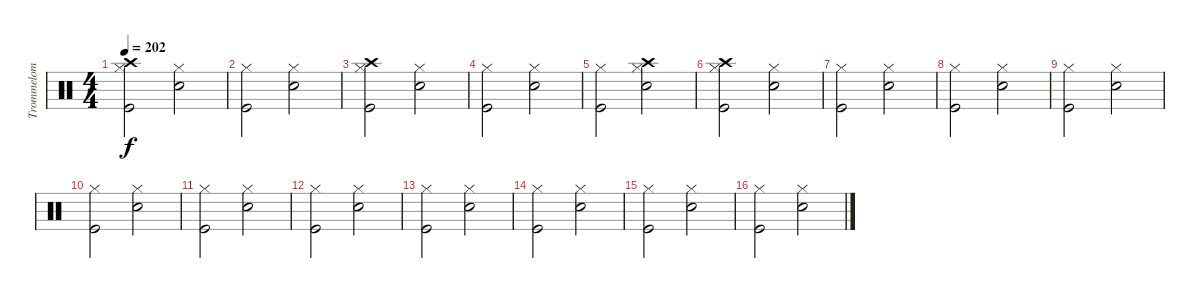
\track ("Trommelom" "Trommelom") {instrument percussion}
\staff {score}
\articulation defaults
\ts (4 4)
\tempo 202
\clef neutral
\ks c
("Crash high (hit)" "Kick (hit)" "Hi-Hat (closed)").2{dy f} ("Electric Snare (hit)" "Hi-Hat (closed)").2 |
("Kick (hit)" "Hi-Hat (closed)").2 ("Electric Snare (hit)" "Hi-Hat (closed)").2 |
("Crash high (hit)" "Kick (hit)" "Hi-Hat (closed)").2 ("Electric Snare (hit)" "Hi-Hat (closed)").2 |
("Kick (hit)" "Hi-Hat (closed)").2 ("Electric Snare (hit)" "Hi-Hat (closed)").2 |
("Kick (hit)" "Hi-Hat (closed)").2 ("Crash high (hit)" "Electric Snare (hit)" "Hi-Hat (closed)").2 |
("Crash high (hit)" "Kick (hit)" "Hi-Hat (closed)").2 ("Electric Snare (hit)" "Hi-Hat (closed)").2 |
("Kick (hit)" "Hi-Hat (closed)").2 ("Electric Snare (hit)" "Hi-Hat (closed)").2 |
("Kick (hit)" "Hi-Hat (closed)").2 ("Electric Snare (hit)" "Hi-Hat (closed)").2 |
("Kick (hit)" "Hi-Hat (closed)").2 ("Electric Snare (hit)" "Hi-Hat (closed)").2 |
("Kick (hit)" "Hi-Hat (closed)").2 ("Electric Snare (hit)" "Hi-Hat (closed)").2 |
("Kick (hit)" "Hi-Hat (closed)").2 ("Electric Snare (hit)" "Hi-Hat (closed)").2 |
("Kick (hit)" "Hi-Hat (closed)").2 ("Electric Snare (hit)" "Hi-Hat (closed)").2 |
("Kick (hit)" "Hi-Hat (closed)").2 ("Electric Snare (hit)" "Hi-Hat (closed)").2 |
("Kick (hit)" "Hi-Hat (closed)").2 ("Electric Snare (hit)" "Hi-Hat (closed)").2 |
("Kick (hit)" "Hi-Hat (closed)").2 ("Electric Snare (hit)" "Hi-Hat (closed)").2 |
("Kick (hit)" "Hi-Hat (closed)").2 ("Electric Snare (hit)" "Hi-Hat (closed)").2
